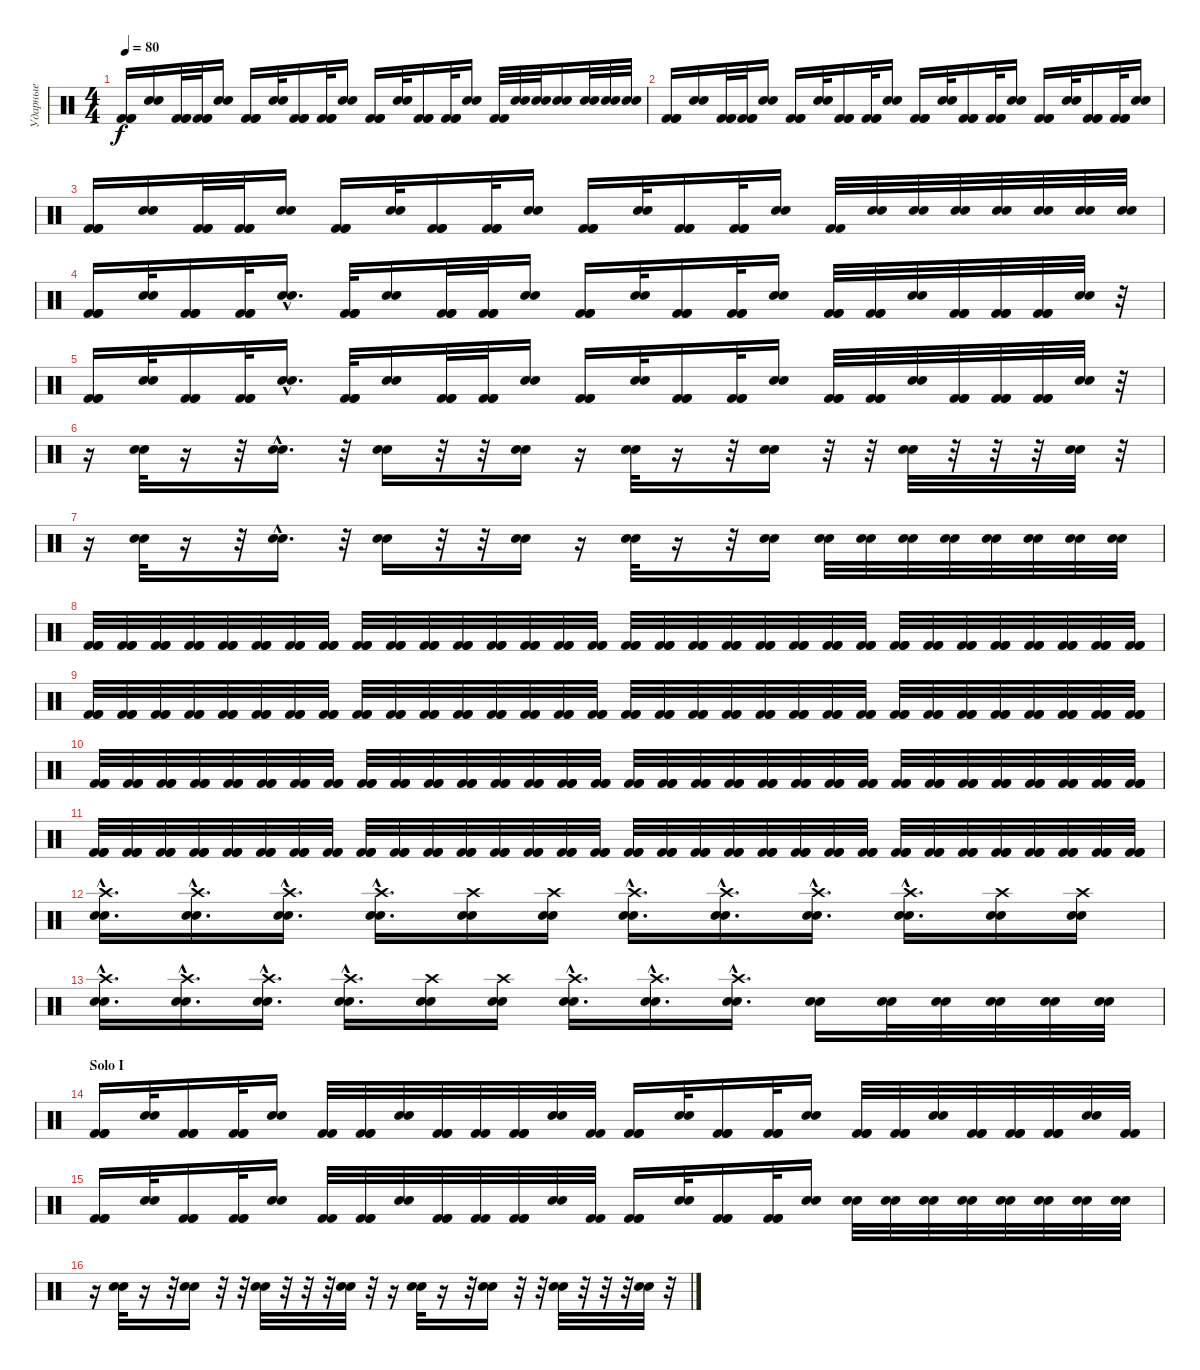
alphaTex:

\track ("Ударные" "Ударные") {instrument percussion}
\staff {score}
\articulation defaults
\ts (4 4)
\tempo 80
\clef neutral
\ks c
("Kick (hit) 2" "Kick (hit) 2" "Kick (hit) 2").16{dy f} ("Snare (hit) 2" "Snare (hit) 2").16 ("Kick (hit) 2" "Kick (hit) 2" "Kick (hit) 2").32 ("Kick (hit) 2" "Kick (hit) 2" "Kick (hit) 2").32 ("Snare (hit) 2" "Snare (hit) 2").16 ("Kick (hit) 2" "Kick (hit) 2" "Kick (hit) 2").16 ("Snare (hit) 2" "Snare (hit) 2").32 ("Kick (hit) 2" "Kick (hit) 2" "Kick (hit) 2").16 ("Kick (hit) 2" "Kick (hit) 2" "Kick (hit) 2").32 ("Snare (hit) 2" "Snare (hit) 2").16 ("Kick (hit) 2" "Kick (hit) 2" "Kick (hit) 2").16 ("Snare (hit) 2" "Snare (hit) 2").32 ("Kick (hit) 2" "Kick (hit) 2" "Kick (hit) 2").16 ("Kick (hit) 2" "Kick (hit) 2" "Kick (hit) 2").32 ("Snare (hit) 2" "Snare (hit) 2").16 ("Kick (hit) 2" "Kick (hit) 2").32 ("Snare (hit) 2" "Snare (hit) 2").32 ("Snare (hit) 2" "Snare (hit) 2").32 ("Snare (hit) 2" "Snare (hit) 2").16 ("Snare (hit) 2" "Snare (hit) 2").32 ("Snare (hit) 2" "Snare (hit) 2").32 ("Snare (hit) 2" "Snare (hit) 2").32 |
("Kick (hit) 2" "Kick (hit) 2" "Kick (hit) 2").16 ("Snare (hit) 2" "Snare (hit) 2").16 ("Kick (hit) 2" "Kick (hit) 2" "Kick (hit) 2").32 ("Kick (hit) 2" "Kick (hit) 2" "Kick (hit) 2").32 ("Snare (hit) 2" "Snare (hit) 2").16 ("Kick (hit) 2" "Kick (hit) 2" "Kick (hit) 2").16 ("Snare (hit) 2" "Snare (hit) 2").32 ("Kick (hit) 2" "Kick (hit) 2" "Kick (hit) 2").16 ("Kick (hit) 2" "Kick (hit) 2" "Kick (hit) 2").32 ("Snare (hit) 2" "Snare (hit) 2").16 ("Kick (hit) 2" "Kick (hit) 2" "Kick (hit) 2").16 ("Snare (hit) 2" "Snare (hit) 2").32 ("Kick (hit) 2" "Kick (hit) 2" "Kick (hit) 2").16 ("Kick (hit) 2" "Kick (hit) 2" "Kick (hit) 2").32 ("Snare (hit) 2" "Snare (hit) 2").16 ("Kick (hit) 2" "Kick (hit) 2" "Kick (hit) 2").16 ("Snare (hit) 2" "Snare (hit) 2").32 ("Kick (hit) 2" "Kick (hit) 2" "Kick (hit) 2").16 ("Kick (hit) 2" "Kick (hit) 2" "Kick (hit) 2").32 ("Snare (hit) 2" "Snare (hit) 2").16 |
("Kick (hit) 2" "Kick (hit) 2" "Kick (hit) 2").16 ("Snare (hit) 2" "Snare (hit) 2").16 ("Kick (hit) 2" "Kick (hit) 2" "Kick (hit) 2").32 ("Kick (hit) 2" "Kick (hit) 2" "Kick (hit) 2").32 ("Snare (hit) 2" "Snare (hit) 2").16 ("Kick (hit) 2" "Kick (hit) 2" "Kick (hit) 2").16 ("Snare (hit) 2" "Snare (hit) 2").32 ("Kick (hit) 2" "Kick (hit) 2" "Kick (hit) 2").16 ("Kick (hit) 2" "Kick (hit) 2" "Kick (hit) 2").32 ("Snare (hit) 2" "Snare (hit) 2").16 ("Kick (hit) 2" "Kick (hit) 2" "Kick (hit) 2").16 ("Snare (hit) 2" "Snare (hit) 2").32 ("Kick (hit) 2" "Kick (hit) 2" "Kick (hit) 2").16 ("Kick (hit) 2" "Kick (hit) 2" "Kick (hit) 2").32 ("Snare (hit) 2" "Snare (hit) 2").16 ("Kick (hit) 2" "Kick (hit) 2").32 ("Snare (hit) 2" "Snare (hit) 2").32 ("Snare (hit) 2" "Snare (hit) 2").32 ("Snare (hit) 2" "Snare (hit) 2").32 ("Snare (hit) 2" "Snare (hit) 2").32 ("Snare (hit) 2" "Snare (hit) 2").32 ("Snare (hit) 2" "Snare (hit) 2").32 ("Snare (hit) 2" "Snare (hit) 2").32 |
("Kick (hit) 2" "Kick (hit) 2" "Kick (hit) 2").16 ("Snare (hit) 2" "Snare (hit) 2").32 ("Kick (hit) 2" "Kick (hit) 2" "Kick (hit) 2").16 ("Kick (hit) 2" "Kick (hit) 2" "Kick (hit) 2").32 ("Snare (hit) 2"{hac} "Snare (hit) 2"{hac}).16{d} ("Kick (hit) 2" "Kick (hit) 2" "Kick (hit) 2").32 ("Snare (hit) 2" "Snare (hit) 2").16 ("Kick (hit) 2" "Kick (hit) 2" "Kick (hit) 2").32 ("Kick (hit) 2" "Kick (hit) 2" "Kick (hit) 2").32 ("Snare (hit) 2" "Snare (hit) 2").16 ("Kick (hit) 2" "Kick (hit) 2" "Kick (hit) 2").16 ("Snare (hit) 2" "Snare (hit) 2").32 ("Kick (hit) 2" "Kick (hit) 2" "Kick (hit) 2").16 ("Kick (hit) 2" "Kick (hit) 2" "Kick (hit) 2").32 ("Snare (hit) 2" "Snare (hit) 2").16 ("Kick (hit) 2" "Kick (hit) 2" "Kick (hit) 2").32 ("Kick (hit) 2" "Kick (hit) 2" "Kick (hit) 2").32 ("Snare (hit) 2" "Snare (hit) 2").32 ("Kick (hit) 2" "Kick (hit) 2" "Kick (hit) 2").32 ("Kick (hit) 2" "Kick (hit) 2" "Kick (hit) 2").32 ("Kick (hit) 2" "Kick (hit) 2" "Kick (hit) 2").32 ("Snare (hit) 2" "Snare (hit) 2").32 r.32 |
("Kick (hit) 2" "Kick (hit) 2" "Kick (hit) 2").16 ("Snare (hit) 2" "Snare (hit) 2").32 ("Kick (hit) 2" "Kick (hit) 2" "Kick (hit) 2").16 ("Kick (hit) 2" "Kick (hit) 2" "Kick (hit) 2").32 ("Snare (hit) 2"{hac} "Snare (hit) 2"{hac}).16{d} ("Kick (hit) 2" "Kick (hit) 2" "Kick (hit) 2").32 ("Snare (hit) 2" "Snare (hit) 2").16 ("Kick (hit) 2" "Kick (hit) 2" "Kick (hit) 2").32 ("Kick (hit) 2" "Kick (hit) 2" "Kick (hit) 2").32 ("Snare (hit) 2" "Snare (hit) 2").16 ("Kick (hit) 2" "Kick (hit) 2" "Kick (hit) 2").16 ("Snare (hit) 2" "Snare (hit) 2").32 ("Kick (hit) 2" "Kick (hit) 2" "Kick (hit) 2").16 ("Kick (hit) 2" "Kick (hit) 2" "Kick (hit) 2").32 ("Snare (hit) 2" "Snare (hit) 2").16 ("Kick (hit) 2" "Kick (hit) 2" "Kick (hit) 2").32 ("Kick (hit) 2" "Kick (hit) 2" "Kick (hit) 2").32 ("Snare (hit) 2" "Snare (hit) 2").32 ("Kick (hit) 2" "Kick (hit) 2" "Kick (hit) 2").32 ("Kick (hit) 2" "Kick (hit) 2" "Kick (hit) 2").32 ("Kick (hit) 2" "Kick (hit) 2" "Kick (hit) 2").32 ("Snare (hit) 2" "Snare (hit) 2").32 r.32 |
r.16 ("Snare (hit) 2" "Snare (hit) 2").32 r.16 r.32 ("Snare (hit) 2"{hac} "Snare (hit) 2"{hac}).16{d} r.32 ("Snare (hit) 2" "Snare (hit) 2").16 r.32 r.32 ("Snare (hit) 2" "Snare (hit) 2").16 r.16 ("Snare (hit) 2" "Snare (hit) 2").32 r.16 r.32 ("Snare (hit) 2" "Snare (hit) 2").16 r.32 r.32 ("Snare (hit) 2" "Snare (hit) 2").32 r.32 r.32 r.32 ("Snare (hit) 2" "Snare (hit) 2").32 r.32 |
r.16 ("Snare (hit) 2" "Snare (hit) 2").32 r.16 r.32 ("Snare (hit) 2"{hac} "Snare (hit) 2"{hac}).16{d} r.32 ("Snare (hit) 2" "Snare (hit) 2").16 r.32 r.32 ("Snare (hit) 2" "Snare (hit) 2").16 r.16 ("Snare (hit) 2" "Snare (hit) 2").32 r.16 r.32 ("Snare (hit) 2" "Snare (hit) 2").16 ("Snare (hit) 2" "Snare (hit) 2").32 ("Snare (hit) 2" "Snare (hit) 2").32 ("Snare (hit) 2" "Snare (hit) 2").32 ("Snare (hit) 2" "Snare (hit) 2").32 ("Snare (hit) 2" "Snare (hit) 2").32 ("Snare (hit) 2" "Snare (hit) 2").32 ("Snare (hit) 2" "Snare (hit) 2").32 ("Snare (hit) 2" "Snare (hit) 2").32 |
("Kick (hit) 2" "Kick (hit) 2" "Kick (hit) 2").32 ("Kick (hit) 2" "Kick (hit) 2" "Kick (hit) 2").32 ("Kick (hit) 2" "Kick (hit) 2" "Kick (hit) 2").32 ("Kick (hit) 2" "Kick (hit) 2" "Kick (hit) 2").32 ("Kick (hit) 2" "Kick (hit) 2" "Kick (hit) 2").32 ("Kick (hit) 2" "Kick (hit) 2" "Kick (hit) 2").32 ("Kick (hit) 2" "Kick (hit) 2" "Kick (hit) 2").32 ("Kick (hit) 2" "Kick (hit) 2" "Kick (hit) 2").32 ("Kick (hit) 2" "Kick (hit) 2" "Kick (hit) 2").32 ("Kick (hit) 2" "Kick (hit) 2" "Kick (hit) 2").32 ("Kick (hit) 2" "Kick (hit) 2" "Kick (hit) 2").32 ("Kick (hit) 2" "Kick (hit) 2" "Kick (hit) 2").32 ("Kick (hit) 2" "Kick (hit) 2" "Kick (hit) 2").32 ("Kick (hit) 2" "Kick (hit) 2" "Kick (hit) 2").32 ("Kick (hit) 2" "Kick (hit) 2" "Kick (hit) 2").32 ("Kick (hit) 2" "Kick (hit) 2" "Kick (hit) 2").32 ("Kick (hit) 2" "Kick (hit) 2" "Kick (hit) 2").32 ("Kick (hit) 2" "Kick (hit) 2" "Kick (hit) 2").32 ("Kick (hit) 2" "Kick (hit) 2" "Kick (hit) 2").32 ("Kick (hit) 2" "Kick (hit) 2" "Kick (hit) 2").32 ("Kick (hit) 2" "Kick (hit) 2" "Kick (hit) 2").32 ("Kick (hit) 2" "Kick (hit) 2" "Kick (hit) 2").32 ("Kick (hit) 2" "Kick (hit) 2" "Kick (hit) 2").32 ("Kick (hit) 2" "Kick (hit) 2" "Kick (hit) 2").32 ("Kick (hit) 2" "Kick (hit) 2" "Kick (hit) 2").32 ("Kick (hit) 2" "Kick (hit) 2" "Kick (hit) 2").32 ("Kick (hit) 2" "Kick (hit) 2" "Kick (hit) 2").32 ("Kick (hit) 2" "Kick (hit) 2" "Kick (hit) 2").32 ("Kick (hit) 2" "Kick (hit) 2" "Kick (hit) 2").32 ("Kick (hit) 2" "Kick (hit) 2" "Kick (hit) 2").32 ("Kick (hit) 2" "Kick (hit) 2" "Kick (hit) 2").32 ("Kick (hit) 2" "Kick (hit) 2" "Kick (hit) 2").32 |
("Kick (hit) 2" "Kick (hit) 2" "Kick (hit) 2").32 ("Kick (hit) 2" "Kick (hit) 2" "Kick (hit) 2").32 ("Kick (hit) 2" "Kick (hit) 2" "Kick (hit) 2").32 ("Kick (hit) 2" "Kick (hit) 2" "Kick (hit) 2").32 ("Kick (hit) 2" "Kick (hit) 2" "Kick (hit) 2").32 ("Kick (hit) 2" "Kick (hit) 2" "Kick (hit) 2").32 ("Kick (hit) 2" "Kick (hit) 2" "Kick (hit) 2").32 ("Kick (hit) 2" "Kick (hit) 2" "Kick (hit) 2").32 ("Kick (hit) 2" "Kick (hit) 2" "Kick (hit) 2").32 ("Kick (hit) 2" "Kick (hit) 2" "Kick (hit) 2").32 ("Kick (hit) 2" "Kick (hit) 2" "Kick (hit) 2").32 ("Kick (hit) 2" "Kick (hit) 2" "Kick (hit) 2").32 ("Kick (hit) 2" "Kick (hit) 2" "Kick (hit) 2").32 ("Kick (hit) 2" "Kick (hit) 2" "Kick (hit) 2").32 ("Kick (hit) 2" "Kick (hit) 2" "Kick (hit) 2").32 ("Kick (hit) 2" "Kick (hit) 2" "Kick (hit) 2").32 ("Kick (hit) 2" "Kick (hit) 2" "Kick (hit) 2").32 ("Kick (hit) 2" "Kick (hit) 2" "Kick (hit) 2").32 ("Kick (hit) 2" "Kick (hit) 2" "Kick (hit) 2").32 ("Kick (hit) 2" "Kick (hit) 2" "Kick (hit) 2").32 ("Kick (hit) 2" "Kick (hit) 2" "Kick (hit) 2").32 ("Kick (hit) 2" "Kick (hit) 2" "Kick (hit) 2").32 ("Kick (hit) 2" "Kick (hit) 2" "Kick (hit) 2").32 ("Kick (hit) 2" "Kick (hit) 2" "Kick (hit) 2").32 ("Kick (hit) 2" "Kick (hit) 2" "Kick (hit) 2").32 ("Kick (hit) 2" "Kick (hit) 2" "Kick (hit) 2").32 ("Kick (hit) 2" "Kick (hit) 2" "Kick (hit) 2").32 ("Kick (hit) 2" "Kick (hit) 2" "Kick (hit) 2").32 ("Kick (hit) 2" "Kick (hit) 2" "Kick (hit) 2").32 ("Kick (hit) 2" "Kick (hit) 2" "Kick (hit) 2").32 ("Kick (hit) 2" "Kick (hit) 2" "Kick (hit) 2").32 ("Kick (hit) 2" "Kick (hit) 2" "Kick (hit) 2").32 |
("Kick (hit) 2" "Kick (hit) 2" "Kick (hit) 2").32 ("Kick (hit) 2" "Kick (hit) 2" "Kick (hit) 2").32 ("Kick (hit) 2" "Kick (hit) 2" "Kick (hit) 2").32 ("Kick (hit) 2" "Kick (hit) 2" "Kick (hit) 2").32 ("Kick (hit) 2" "Kick (hit) 2" "Kick (hit) 2").32 ("Kick (hit) 2" "Kick (hit) 2" "Kick (hit) 2").32 ("Kick (hit) 2" "Kick (hit) 2" "Kick (hit) 2").32 ("Kick (hit) 2" "Kick (hit) 2" "Kick (hit) 2").32 ("Kick (hit) 2" "Kick (hit) 2" "Kick (hit) 2").32 ("Kick (hit) 2" "Kick (hit) 2" "Kick (hit) 2").32 ("Kick (hit) 2" "Kick (hit) 2" "Kick (hit) 2").32 ("Kick (hit) 2" "Kick (hit) 2" "Kick (hit) 2").32 ("Kick (hit) 2" "Kick (hit) 2" "Kick (hit) 2").32 ("Kick (hit) 2" "Kick (hit) 2" "Kick (hit) 2").32 ("Kick (hit) 2" "Kick (hit) 2" "Kick (hit) 2").32 ("Kick (hit) 2" "Kick (hit) 2" "Kick (hit) 2").32 ("Kick (hit) 2" "Kick (hit) 2" "Kick (hit) 2").32 ("Kick (hit) 2" "Kick (hit) 2" "Kick (hit) 2").32 ("Kick (hit) 2" "Kick (hit) 2" "Kick (hit) 2").32 ("Kick (hit) 2" "Kick (hit) 2" "Kick (hit) 2").32 ("Kick (hit) 2" "Kick (hit) 2" "Kick (hit) 2").32 ("Kick (hit) 2" "Kick (hit) 2" "Kick (hit) 2").32 ("Kick (hit) 2" "Kick (hit) 2" "Kick (hit) 2").32 ("Kick (hit) 2" "Kick (hit) 2" "Kick (hit) 2").32 ("Kick (hit) 2" "Kick (hit) 2" "Kick (hit) 2").32 ("Kick (hit) 2" "Kick (hit) 2" "Kick (hit) 2").32 ("Kick (hit) 2" "Kick (hit) 2" "Kick (hit) 2").32 ("Kick (hit) 2" "Kick (hit) 2" "Kick (hit) 2").32 ("Kick (hit) 2" "Kick (hit) 2" "Kick (hit) 2").32 ("Kick (hit) 2" "Kick (hit) 2" "Kick (hit) 2").32 ("Kick (hit) 2" "Kick (hit) 2" "Kick (hit) 2").32 ("Kick (hit) 2" "Kick (hit) 2" "Kick (hit) 2").32 |
("Kick (hit) 2" "Kick (hit) 2" "Kick (hit) 2").32 ("Kick (hit) 2" "Kick (hit) 2" "Kick (hit) 2").32 ("Kick (hit) 2" "Kick (hit) 2" "Kick (hit) 2").32 ("Kick (hit) 2" "Kick (hit) 2" "Kick (hit) 2").32 ("Kick (hit) 2" "Kick (hit) 2" "Kick (hit) 2").32 ("Kick (hit) 2" "Kick (hit) 2" "Kick (hit) 2").32 ("Kick (hit) 2" "Kick (hit) 2" "Kick (hit) 2").32 ("Kick (hit) 2" "Kick (hit) 2" "Kick (hit) 2").32 ("Kick (hit) 2" "Kick (hit) 2" "Kick (hit) 2").32 ("Kick (hit) 2" "Kick (hit) 2" "Kick (hit) 2").32 ("Kick (hit) 2" "Kick (hit) 2" "Kick (hit) 2").32 ("Kick (hit) 2" "Kick (hit) 2" "Kick (hit) 2").32 ("Kick (hit) 2" "Kick (hit) 2" "Kick (hit) 2").32 ("Kick (hit) 2" "Kick (hit) 2" "Kick (hit) 2").32 ("Kick (hit) 2" "Kick (hit) 2" "Kick (hit) 2").32 ("Kick (hit) 2" "Kick (hit) 2" "Kick (hit) 2").32 ("Kick (hit) 2" "Kick (hit) 2" "Kick (hit) 2").32 ("Kick (hit) 2" "Kick (hit) 2" "Kick (hit) 2").32 ("Kick (hit) 2" "Kick (hit) 2" "Kick (hit) 2").32 ("Kick (hit) 2" "Kick (hit) 2" "Kick (hit) 2").32 ("Kick (hit) 2" "Kick (hit) 2" "Kick (hit) 2").32 ("Kick (hit) 2" "Kick (hit) 2" "Kick (hit) 2").32 ("Kick (hit) 2" "Kick (hit) 2" "Kick (hit) 2").32 ("Kick (hit) 2" "Kick (hit) 2" "Kick (hit) 2").32 ("Kick (hit) 2" "Kick (hit) 2" "Kick (hit) 2").32 ("Kick (hit) 2" "Kick (hit) 2" "Kick (hit) 2").32 ("Kick (hit) 2" "Kick (hit) 2" "Kick (hit) 2").32 ("Kick (hit) 2" "Kick (hit) 2" "Kick (hit) 2").32 ("Kick (hit) 2" "Kick (hit) 2" "Kick (hit) 2").32 ("Kick (hit) 2" "Kick (hit) 2" "Kick (hit) 2").32 ("Kick (hit) 2" "Kick (hit) 2" "Kick (hit) 2").32 ("Kick (hit) 2" "Kick (hit) 2" "Kick (hit) 2").32 |
("Crash high (hit)"{hac} "Snare (hit) 2"{hac} "Snare (hit) 2"{hac}).16{d} ("Crash high (hit)"{hac} "Snare (hit) 2"{hac} "Snare (hit) 2"{hac}).16{d} ("Crash high (hit)"{hac} "Snare (hit) 2"{hac} "Snare (hit) 2"{hac}).16{d} ("Crash high (hit)"{hac} "Snare (hit) 2"{hac} "Snare (hit) 2"{hac}).16{d} ("Crash high (hit)" "Snare (hit) 2" "Snare (hit) 2").16 ("Crash high (hit)" "Snare (hit) 2" "Snare (hit) 2").16 ("Crash high (hit)"{hac} "Snare (hit) 2"{hac} "Snare (hit) 2"{hac}).16{d} ("Crash high (hit)"{hac} "Snare (hit) 2"{hac} "Snare (hit) 2"{hac}).16{d} ("Crash high (hit)"{hac} "Snare (hit) 2"{hac} "Snare (hit) 2"{hac}).16{d} ("Crash high (hit)"{hac} "Snare (hit) 2"{hac} "Snare (hit) 2"{hac}).16{d} ("Crash high (hit)" "Snare (hit) 2" "Snare (hit) 2").16 ("Crash high (hit)" "Snare (hit) 2" "Snare (hit) 2").16 |
("Crash high (hit)"{hac} "Snare (hit) 2"{hac} "Snare (hit) 2"{hac}).16{d} ("Crash high (hit)"{hac} "Snare (hit) 2"{hac} "Snare (hit) 2"{hac}).16{d} ("Crash high (hit)"{hac} "Snare (hit) 2"{hac} "Snare (hit) 2"{hac}).16{d} ("Crash high (hit)"{hac} "Snare (hit) 2"{hac} "Snare (hit) 2"{hac}).16{d} ("Crash high (hit)" "Snare (hit) 2" "Snare (hit) 2").16 ("Crash high (hit)" "Snare (hit) 2" "Snare (hit) 2").16 ("Crash high (hit)"{hac} "Snare (hit) 2"{hac} "Snare (hit) 2"{hac}).16{d} ("Crash high (hit)"{hac} "Snare (hit) 2"{hac} "Snare (hit) 2"{hac}).16{d} ("Crash high (hit)"{hac} "Snare (hit) 2"{hac} "Snare (hit) 2"{hac}).16{d} ("Snare (hit) 2" "Snare (hit) 2").16 ("Snare (hit) 2" "Snare (hit) 2").32 ("Snare (hit) 2" "Snare (hit) 2").32 ("Snare (hit) 2" "Snare (hit) 2").32 ("Snare (hit) 2" "Snare (hit) 2").32 ("Snare (hit) 2" "Snare (hit) 2").32 |
\section ("" "Solo I")
("Kick (hit) 2" "Kick (hit) 2" "Kick (hit) 2").16 ("Snare (hit) 2" "Snare (hit) 2").32 ("Kick (hit) 2" "Kick (hit) 2" "Kick (hit) 2").16 ("Kick (hit) 2" "Kick (hit) 2" "Kick (hit) 2").32 ("Snare (hit) 2" "Snare (hit) 2").16 ("Kick (hit) 2" "Kick (hit) 2").32 ("Kick (hit) 2" "Kick (hit) 2" "Kick (hit) 2").32 ("Snare (hit) 2" "Snare (hit) 2").32 ("Kick (hit) 2" "Kick (hit) 2" "Kick (hit) 2").32 ("Kick (hit) 2" "Kick (hit) 2").32 ("Kick (hit) 2" "Kick (hit) 2" "Kick (hit) 2").32 ("Snare (hit) 2" "Snare (hit) 2").32 ("Kick (hit) 2" "Kick (hit) 2").32 ("Kick (hit) 2" "Kick (hit) 2" "Kick (hit) 2").16 ("Snare (hit) 2" "Snare (hit) 2").32 ("Kick (hit) 2" "Kick (hit) 2" "Kick (hit) 2").16 ("Kick (hit) 2" "Kick (hit) 2" "Kick (hit) 2").32 ("Snare (hit) 2" "Snare (hit) 2").16 ("Kick (hit) 2" "Kick (hit) 2" "Kick (hit) 2").32 ("Kick (hit) 2" "Kick (hit) 2" "Kick (hit) 2").32 ("Snare (hit) 2" "Snare (hit) 2").32 ("Kick (hit) 2" "Kick (hit) 2" "Kick (hit) 2").32 ("Kick (hit) 2" "Kick (hit) 2" "Kick (hit) 2").32 ("Kick (hit) 2" "Kick (hit) 2" "Kick (hit) 2").32 ("Snare (hit) 2" "Snare (hit) 2").32 ("Kick (hit) 2" "Kick (hit) 2").32 |
("Kick (hit) 2" "Kick (hit) 2" "Kick (hit) 2").16 ("Snare (hit) 2" "Snare (hit) 2").32 ("Kick (hit) 2" "Kick (hit) 2" "Kick (hit) 2").16 ("Kick (hit) 2" "Kick (hit) 2" "Kick (hit) 2").32 ("Snare (hit) 2" "Snare (hit) 2").16 ("Kick (hit) 2" "Kick (hit) 2").32 ("Kick (hit) 2" "Kick (hit) 2" "Kick (hit) 2").32 ("Snare (hit) 2" "Snare (hit) 2").32 ("Kick (hit) 2" "Kick (hit) 2" "Kick (hit) 2").32 ("Kick (hit) 2" "Kick (hit) 2").32 ("Kick (hit) 2" "Kick (hit) 2" "Kick (hit) 2").32 ("Snare (hit) 2" "Snare (hit) 2").32 ("Kick (hit) 2" "Kick (hit) 2").32 ("Kick (hit) 2" "Kick (hit) 2" "Kick (hit) 2").16 ("Snare (hit) 2" "Snare (hit) 2").32 ("Kick (hit) 2" "Kick (hit) 2" "Kick (hit) 2").16 ("Kick (hit) 2" "Kick (hit) 2" "Kick (hit) 2").32 ("Snare (hit) 2" "Snare (hit) 2").16 ("Snare (hit) 2" "Snare (hit) 2").32 ("Snare (hit) 2" "Snare (hit) 2").32 ("Snare (hit) 2" "Snare (hit) 2").32 ("Snare (hit) 2" "Snare (hit) 2").32 ("Snare (hit) 2" "Snare (hit) 2").32 ("Snare (hit) 2" "Snare (hit) 2").32 ("Snare (hit) 2" "Snare (hit) 2").32 ("Snare (hit) 2" "Snare (hit) 2").32 |
r.16 ("Snare (hit) 2" "Snare (hit) 2").32 r.16 r.32 ("Snare (hit) 2" "Snare (hit) 2").16 r.32 r.32 ("Snare (hit) 2" "Snare (hit) 2").32 r.32 r.32 r.32 ("Snare (hit) 2" "Snare (hit) 2").32 r.32 r.16 ("Snare (hit) 2" "Snare (hit) 2").32 r.16 r.32 ("Snare (hit) 2" "Snare (hit) 2").16 r.32 r.32 ("Snare (hit) 2" "Snare (hit) 2").32 r.32 r.32 r.32 ("Snare (hit) 2" "Snare (hit) 2").32 r.32
